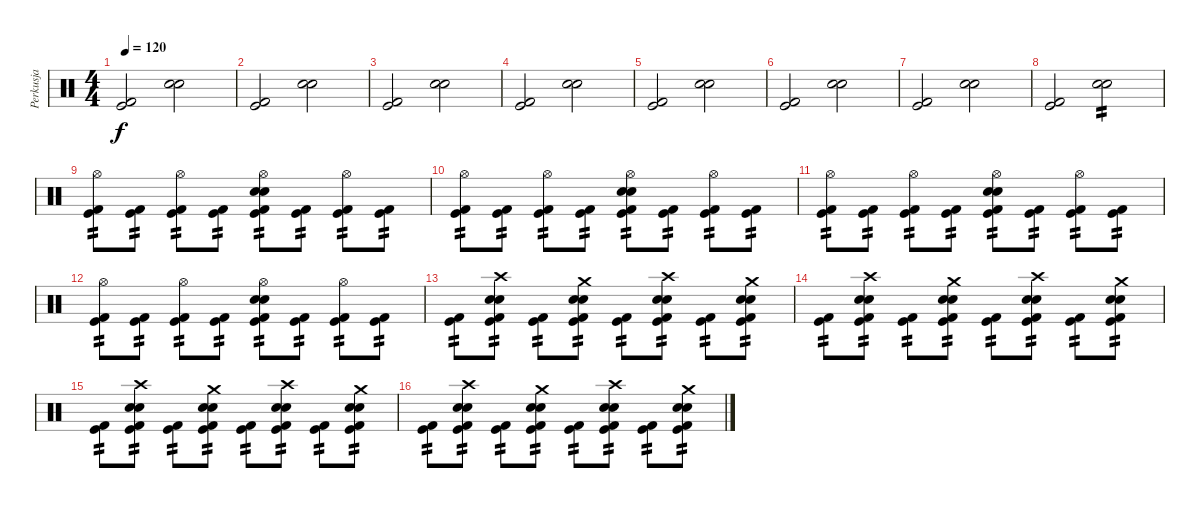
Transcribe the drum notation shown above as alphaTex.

\track ("Perkusja" "Perkusja") {instrument percussion}
\staff {score}
\articulation defaults
\ts (4 4)
\tempo 120
\clef neutral
\ks c
("Kick (hit) 2" "Kick (hit)").2{dy f} ("Snare (hit) 2" "Electric Snare (hit)").2 |
("Kick (hit) 2" "Kick (hit)").2 ("Snare (hit) 2" "Electric Snare (hit)").2 |
("Kick (hit) 2" "Kick (hit)").2 ("Snare (hit) 2" "Electric Snare (hit)").2 |
("Kick (hit) 2" "Kick (hit)").2 ("Snare (hit) 2" "Electric Snare (hit)").2 |
("Kick (hit) 2" "Kick (hit)").2 ("Snare (hit) 2" "Electric Snare (hit)").2 |
("Kick (hit) 2" "Kick (hit)").2 ("Snare (hit) 2" "Electric Snare (hit)").2 |
("Kick (hit) 2" "Kick (hit)").2 ("Snare (hit) 2" "Electric Snare (hit)").2 |
("Kick (hit) 2" "Kick (hit)").2 ("Snare (hit) 2" "Electric Snare (hit)").2{tp 2} |
("Kick (hit) 2" "Kick (hit)" "Hi-Hat (open)").8{tp 2} ("Kick (hit) 2" "Kick (hit)").8{tp 2} ("Kick (hit) 2" "Kick (hit)" "Hi-Hat (open)").8{tp 2} ("Kick (hit) 2" "Kick (hit)").8{tp 2} ("Kick (hit) 2" "Kick (hit)" "Snare (hit) 2" "Electric Snare (hit)" "Hi-Hat (open)").8{tp 2} ("Kick (hit) 2" "Kick (hit)").8{tp 2} ("Kick (hit) 2" "Kick (hit)" "Hi-Hat (open)").8{tp 2} ("Kick (hit) 2" "Kick (hit)").8{tp 2} |
("Kick (hit) 2" "Kick (hit)" "Hi-Hat (open)").8{tp 2} ("Kick (hit) 2" "Kick (hit)").8{tp 2} ("Kick (hit) 2" "Kick (hit)" "Hi-Hat (open)").8{tp 2} ("Kick (hit) 2" "Kick (hit)").8{tp 2} ("Kick (hit) 2" "Kick (hit)" "Snare (hit) 2" "Electric Snare (hit)" "Hi-Hat (open)").8{tp 2} ("Kick (hit) 2" "Kick (hit)").8{tp 2} ("Kick (hit) 2" "Kick (hit)" "Hi-Hat (open)").8{tp 2} ("Kick (hit) 2" "Kick (hit)").8{tp 2} |
("Kick (hit) 2" "Kick (hit)" "Hi-Hat (open)").8{tp 2} ("Kick (hit) 2" "Kick (hit)").8{tp 2} ("Kick (hit) 2" "Kick (hit)" "Hi-Hat (open)").8{tp 2} ("Kick (hit) 2" "Kick (hit)").8{tp 2} ("Kick (hit) 2" "Kick (hit)" "Snare (hit) 2" "Electric Snare (hit)" "Hi-Hat (open)").8{tp 2} ("Kick (hit) 2" "Kick (hit)").8{tp 2} ("Kick (hit) 2" "Kick (hit)" "Hi-Hat (open)").8{tp 2} ("Kick (hit) 2" "Kick (hit)").8{tp 2} |
("Kick (hit) 2" "Kick (hit)" "Hi-Hat (open)").8{tp 2} ("Kick (hit) 2" "Kick (hit)").8{tp 2} ("Kick (hit) 2" "Kick (hit)" "Hi-Hat (open)").8{tp 2} ("Kick (hit) 2" "Kick (hit)").8{tp 2} ("Kick (hit) 2" "Kick (hit)" "Snare (hit) 2" "Electric Snare (hit)" "Hi-Hat (open)").8{tp 2} ("Kick (hit) 2" "Kick (hit)").8{tp 2} ("Kick (hit) 2" "Kick (hit)" "Hi-Hat (open)").8{tp 2} ("Kick (hit) 2" "Kick (hit)").8{tp 2} |
("Kick (hit) 2" "Kick (hit)").8{tp 2} ("Kick (hit) 2" "Kick (hit)" "Snare (hit) 2" "Electric Snare (hit)" "Crash high (hit)").8{tp 2} ("Kick (hit) 2" "Kick (hit)").8{tp 2} ("Kick (hit) 2" "Kick (hit)" "Snare (hit) 2" "Electric Snare (hit)" "Crash medium (hit)").8{tp 2} ("Kick (hit) 2" "Kick (hit)").8{tp 2} ("Kick (hit) 2" "Kick (hit)" "Snare (hit) 2" "Electric Snare (hit)" "Crash high (hit)").8{tp 2} ("Kick (hit) 2" "Kick (hit)").8{tp 2} ("Kick (hit) 2" "Kick (hit)" "Snare (hit) 2" "Electric Snare (hit)" "Crash medium (hit)").8{tp 2} |
("Kick (hit) 2" "Kick (hit)").8{tp 2} ("Kick (hit) 2" "Kick (hit)" "Snare (hit) 2" "Electric Snare (hit)" "Crash high (hit)").8{tp 2} ("Kick (hit) 2" "Kick (hit)").8{tp 2} ("Kick (hit) 2" "Kick (hit)" "Snare (hit) 2" "Electric Snare (hit)" "Crash medium (hit)").8{tp 2} ("Kick (hit) 2" "Kick (hit)").8{tp 2} ("Kick (hit) 2" "Kick (hit)" "Snare (hit) 2" "Electric Snare (hit)" "Crash high (hit)").8{tp 2} ("Kick (hit) 2" "Kick (hit)").8{tp 2} ("Kick (hit) 2" "Kick (hit)" "Snare (hit) 2" "Electric Snare (hit)" "Crash medium (hit)").8{tp 2} |
("Kick (hit) 2" "Kick (hit)").8{tp 2} ("Kick (hit) 2" "Kick (hit)" "Snare (hit) 2" "Electric Snare (hit)" "Crash high (hit)").8{tp 2} ("Kick (hit) 2" "Kick (hit)").8{tp 2} ("Kick (hit) 2" "Kick (hit)" "Snare (hit) 2" "Electric Snare (hit)" "Crash medium (hit)").8{tp 2} ("Kick (hit) 2" "Kick (hit)").8{tp 2} ("Kick (hit) 2" "Kick (hit)" "Snare (hit) 2" "Electric Snare (hit)" "Crash high (hit)").8{tp 2} ("Kick (hit) 2" "Kick (hit)").8{tp 2} ("Kick (hit) 2" "Kick (hit)" "Snare (hit) 2" "Electric Snare (hit)" "Crash medium (hit)").8{tp 2} |
("Kick (hit) 2" "Kick (hit)").8{tp 2} ("Kick (hit) 2" "Kick (hit)" "Snare (hit) 2" "Electric Snare (hit)" "Crash high (hit)").8{tp 2} ("Kick (hit) 2" "Kick (hit)").8{tp 2} ("Kick (hit) 2" "Kick (hit)" "Snare (hit) 2" "Electric Snare (hit)" "Crash medium (hit)").8{tp 2} ("Kick (hit) 2" "Kick (hit)").8{tp 2} ("Kick (hit) 2" "Kick (hit)" "Snare (hit) 2" "Electric Snare (hit)" "Crash high (hit)").8{tp 2} ("Kick (hit) 2" "Kick (hit)").8{tp 2} ("Kick (hit) 2" "Kick (hit)" "Snare (hit) 2" "Electric Snare (hit)" "Crash medium (hit)").8{tp 2}
